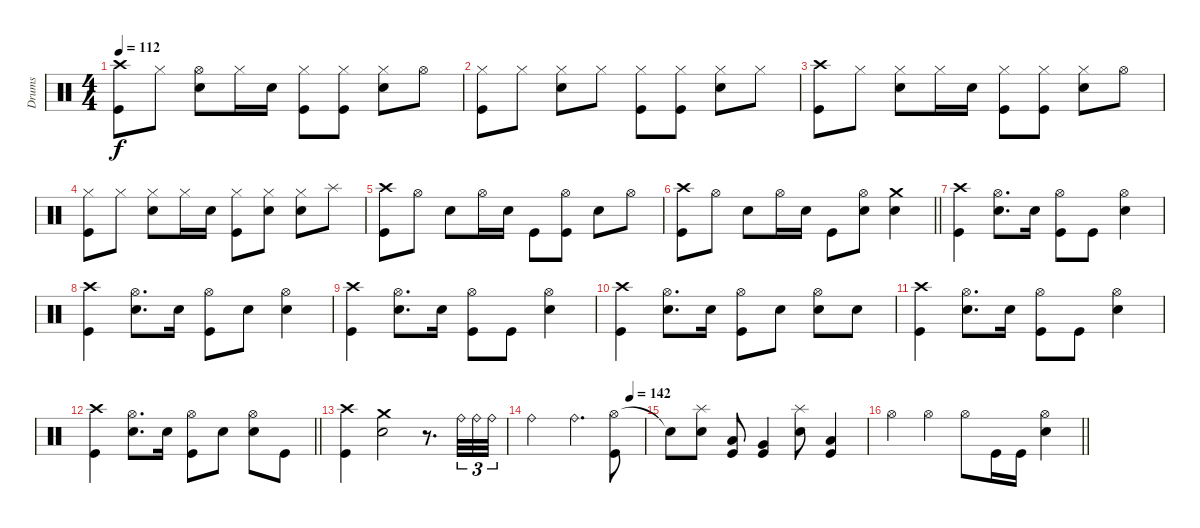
\track ("Drums" "Drums") {instrument percussion}
\staff
\articulation defaults
\ts (4 4)
\section ("" "")
\tempo 112
\clef neutral
\ks c
("Crash high (hit)" "Kick (hit)").8{dy f} "Hi-Hat (closed)".8 ("Hi-Hat (open)" "Electric Snare (hit)").8 "Hi-Hat (closed)".16 "Electric Snare (hit)".16 ("Hi-Hat (closed)" "Kick (hit)").8 ("Hi-Hat (closed)" "Kick (hit)").8 ("Hi-Hat (closed)" "Electric Snare (hit)").8 "Hi-Hat (open)".8 |
("Hi-Hat (closed)" "Kick (hit)").8 "Hi-Hat (closed)".8 ("Hi-Hat (closed)" "Electric Snare (hit)").8 "Hi-Hat (closed)".8 ("Hi-Hat (closed)" "Kick (hit)").8 ("Hi-Hat (closed)" "Kick (hit)").8 ("Hi-Hat (closed)" "Electric Snare (hit)").8 "Hi-Hat (closed)".8 |
("Crash high (hit)" "Kick (hit)").8 "Hi-Hat (closed)".8 ("Hi-Hat (closed)" "Electric Snare (hit)").8 "Hi-Hat (closed)".16 "Electric Snare (hit)".16 ("Hi-Hat (closed)" "Kick (hit)").8 ("Hi-Hat (closed)" "Kick (hit)").8 ("Hi-Hat (closed)" "Electric Snare (hit)").8 "Hi-Hat (open)".8 |
("Hi-Hat (closed)" "Kick (hit)").8 "Hi-Hat (closed)".8 ("Hi-Hat (closed)" "Electric Snare (hit)").8 "Hi-Hat (closed)".16 "Electric Snare (hit)".16 ("Hi-Hat (closed)" "Kick (hit)").8 ("Hi-Hat (closed)" "Electric Snare (hit)").8 ("Hi-Hat (closed)" "Electric Snare (hit)").8 "Splash (hit)".8 |
("Crash high (hit)" "Kick (hit)").8 "Hi-Hat (open)".8 "Electric Snare (hit)".8 "Hi-Hat (open)".16 "Electric Snare (hit)".16 "Kick (hit)".8 ("Hi-Hat (open)" "Kick (hit)").8 "Electric Snare (hit)".8 "Hi-Hat (open)".8 |
\barLineRight lightlight
("Crash high (hit)" "Kick (hit)").8 "Hi-Hat (open)".8 "Electric Snare (hit)".8 "Hi-Hat (open)".16 "Electric Snare (hit)".16 "Kick (hit)".8 ("Hi-Hat (open)" "Electric Snare (hit)").8 ("Crash medium (hit)" "Electric Snare (hit)").4 |
("Crash high (hit)" "Kick (hit)").4 ("Hi-Hat (open)" "Electric Snare (hit)").8{d} "Electric Snare (hit)".16 ("Hi-Hat (open)" "Kick (hit)").8 "Kick (hit)".8 ("Hi-Hat (open)" "Electric Snare (hit)").4 |
("Crash high (hit)" "Kick (hit)").4 ("Hi-Hat (open)" "Electric Snare (hit)").8{d} "Electric Snare (hit)".16 ("Hi-Hat (open)" "Kick (hit)").8 "Electric Snare (hit)".8 ("Hi-Hat (open)" "Electric Snare (hit)").4 |
("Crash high (hit)" "Kick (hit)").4 ("Hi-Hat (open)" "Electric Snare (hit)").8{d} "Electric Snare (hit)".16 ("Hi-Hat (open)" "Kick (hit)").8 "Kick (hit)".8 ("Hi-Hat (open)" "Electric Snare (hit)").4 |
("Crash high (hit)" "Kick (hit)").4 ("Hi-Hat (open)" "Electric Snare (hit)").8{d} "Electric Snare (hit)".16 ("Hi-Hat (open)" "Kick (hit)").8 "Electric Snare (hit)".8 ("Hi-Hat (open)" "Electric Snare (hit)").8 "Electric Snare (hit)".8 |
("Crash high (hit)" "Kick (hit)").4 ("Hi-Hat (open)" "Electric Snare (hit)").8{d} "Electric Snare (hit)".16 ("Hi-Hat (open)" "Kick (hit)").8 "Kick (hit)".8 ("Hi-Hat (open)" "Electric Snare (hit)").4 |
\barLineRight lightlight
("Crash high (hit)" "Kick (hit)").4 ("Hi-Hat (open)" "Electric Snare (hit)").8{d} "Electric Snare (hit)".16 ("Hi-Hat (open)" "Kick (hit)").8 "Electric Snare (hit)".8 ("Hi-Hat (open)" "Electric Snare (hit)").8 "Kick (hit)".8 |
("Crash high (hit)" "Kick (hit)").4 ("Crash medium (hit)" "Electric Snare (hit)").2 r.8{d} "Ride (bell)".32{tu (3 2)} "Ride (bell)".32{tu (3 2)} "Ride (bell)".32{tu (3 2)} |
\tempo (142 0.875)
"Ride (bell)".2 "Ride (bell)".4{d} ("Hi-Hat (open)" "Kick (hit)").8 |
"Snare (hit)"{t}.8 ("Splash (hit)" "Electric Snare (hit)").8 ("Low Tom (hit)" "Kick (hit)").8 ("Very Low Tom (hit)" "Kick (hit)").4 ("Splash (hit)" "Electric Snare (hit)").8 ("Low Floor Tom (hit)" "Kick (hit)").4 |
\barLineRight lightlight "Hi-Hat (open)".4 "Hi-Hat (open)".4 "Hi-Hat (open)".8 "Kick (hit)".16 "Kick (hit)".16
("Hi-Hat (open)" "Electric Snare (hit)").4
